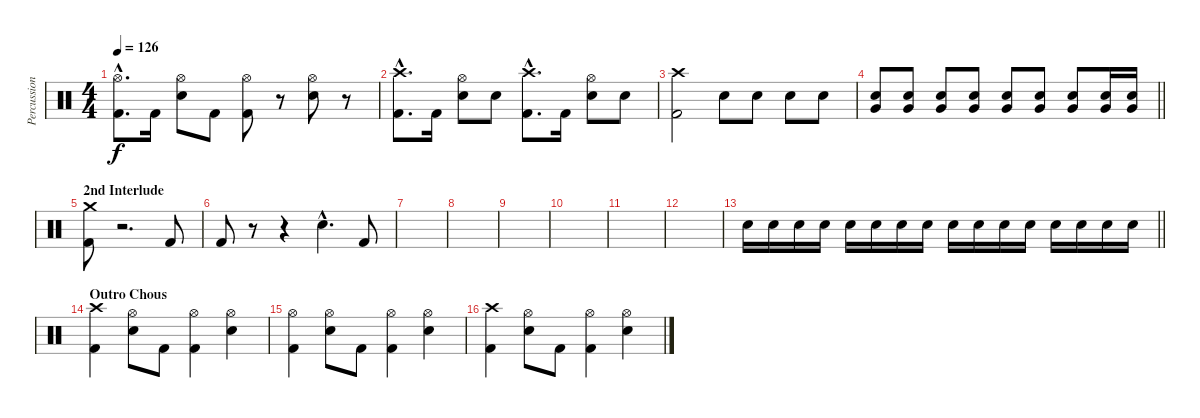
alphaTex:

\track ("Percussion" "Percussion") {instrument percussion}
\staff {score}
\articulation defaults
\ts (4 4)
\tempo 126
\clef neutral
\ks c
("Hi-Hat (open)"{hac} "Kick (hit) 2"{hac}).8{d dy f} "Kick (hit) 2".16 ("Hi-Hat (open)" "Snare (hit) 2").8 "Kick (hit) 2".8 ("Hi-Hat (open)" "Kick (hit) 2").8 r.8 ("Hi-Hat (open)" "Snare (hit) 2").8 r.8 |
("Crash high (hit)"{hac} "Kick (hit) 2"{hac}).8{d} "Kick (hit) 2".16 ("Hi-Hat (open)" "Snare (hit) 2").8 "Snare (hit) 2".8 ("Crash high (hit)"{hac} "Kick (hit) 2"{hac}).8{d} "Kick (hit) 2".16 ("Hi-Hat (open)" "Snare (hit) 2").8 "Snare (hit) 2".8 |
("Crash high (hit)" "Kick (hit) 2").2 "Snare (hit) 2".8 "Snare (hit) 2".8 "Snare (hit) 2".8 "Snare (hit) 2".8 |
\barLineRight lightlight
("Snare (hit) 2" "Very Low Tom (hit)").8 ("Snare (hit) 2" "Very Low Tom (hit)").8 ("Snare (hit) 2" "Very Low Tom (hit)").8 ("Snare (hit) 2" "Very Low Tom (hit)").8 ("Snare (hit) 2" "Very Low Tom (hit)").8 ("Snare (hit) 2" "Very Low Tom (hit)").8 ("Snare (hit) 2" "Very Low Tom (hit)").8 ("Snare (hit) 2" "Very Low Tom (hit)").16 ("Snare (hit) 2" "Very Low Tom (hit)").16 |
\section ("" "2nd Interlude")
("Crash medium (hit)" "Kick (hit) 2").8 r.2{d} "Kick (hit) 2".8 |
"Kick (hit) 2".8 r.8 r.4 "Snare (hit) 2"{hac}.4{d} "Kick (hit) 2".8 |
|
|
|
|
|
|
\barLineRight lightlight "Snare (hit) 2".16 "Snare (hit) 2".16 "Snare (hit) 2".16 "Snare (hit) 2".16 "Snare (hit) 2".16 "Snare (hit) 2".16 "Snare (hit) 2".16 "Snare (hit) 2".16 "Snare (hit) 2".16 "Snare (hit) 2".16 "Snare (hit) 2".16 "Snare (hit) 2".16 "Snare (hit) 2".16 "Snare (hit) 2".16 "Snare (hit) 2".16 "Snare (hit) 2".16
|
\section ("" "Outro Chous")
("Crash high (hit)" "Kick (hit) 2").4 ("Hi-Hat (open)" "Snare (hit) 2").8 "Kick (hit) 2".8 ("Hi-Hat (open)" "Kick (hit) 2").4 ("Hi-Hat (open)" "Snare (hit) 2").4 |
("Hi-Hat (open)" "Kick (hit) 2").4 ("Hi-Hat (open)" "Snare (hit) 2").8 "Kick (hit) 2".8 ("Hi-Hat (open)" "Kick (hit) 2").4 ("Hi-Hat (open)" "Snare (hit) 2").4 |
("Crash high (hit)" "Kick (hit) 2").4 ("Hi-Hat (open)" "Snare (hit) 2").8 "Kick (hit) 2".8 ("Hi-Hat (open)" "Kick (hit) 2").4 ("Hi-Hat (open)" "Snare (hit) 2").4
